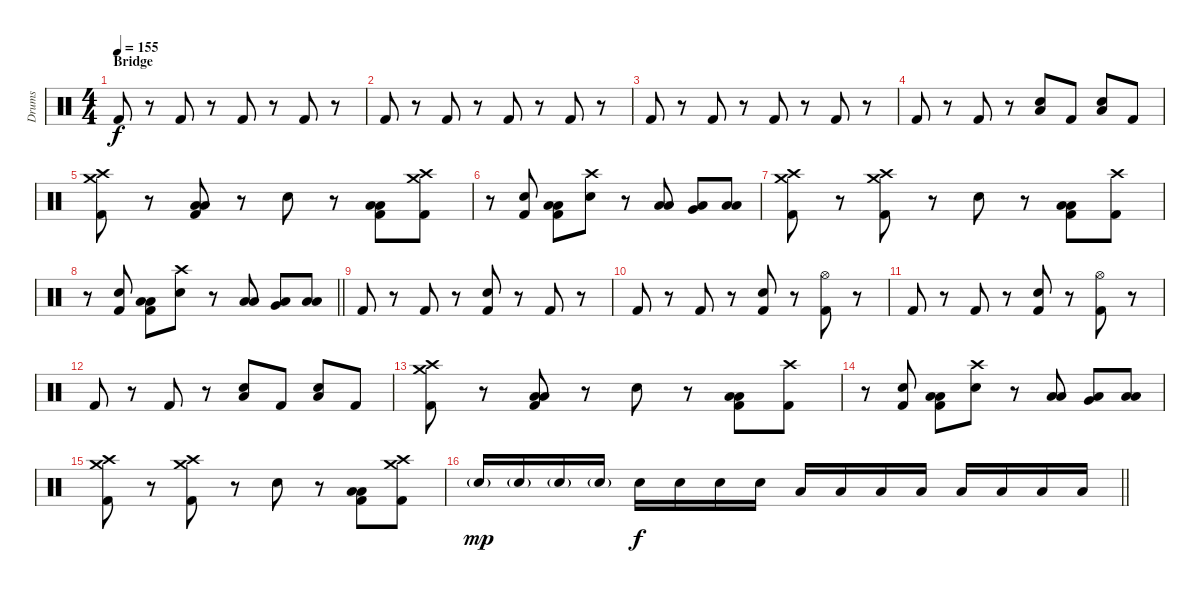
\track ("Drums" "Drums") {instrument percussion}
\staff {score}
\articulation defaults
\ts (4 4)
\section ("" "Bridge")
\tempo 155
\clef neutral
\ks c "Kick (hit) 2".8{dy f}
r.8 "Kick (hit) 2".8 r.8 "Kick (hit) 2".8 r.8 "Kick (hit) 2".8 r.8 |
"Kick (hit) 2".8 r.8 "Kick (hit) 2".8 r.8 "Kick (hit) 2".8 r.8 "Kick (hit) 2".8 r.8 |
"Kick (hit) 2".8 r.8 "Kick (hit) 2".8 r.8 "Kick (hit) 2".8 r.8 "Kick (hit) 2".8 r.8 |
"Kick (hit) 2".8 r.8 "Kick (hit) 2".8 r.8 ("Low Floor Tom (hit)" "Electric Snare (hit)").8 "Kick (hit) 2".8 ("Low Floor Tom (hit)" "Electric Snare (hit)").8 "Kick (hit) 2".8 |
("Crash high (hit)" "Crash medium (hit)" "Kick (hit) 2").8 r.8 ("Low Tom (hit)" "Low Floor Tom (hit)" "Kick (hit) 2").8 r.8 "Electric Snare (hit)".8 r.8 ("Low Tom (hit)" "Low Floor Tom (hit)" "Kick (hit) 2").8 ("Crash high (hit)" "Crash medium (hit)" "Kick (hit) 2").8 |
r.8 ("Electric Snare (hit)" "Kick (hit) 2").8 ("Low Tom (hit)" "Low Floor Tom (hit)" "Kick (hit) 2").8 ("Crash high (hit)" "Electric Snare (hit)").8 r.8 ("Low Tom (hit)" "Low Floor Tom (hit)").8 ("Very Low Tom (hit)" "Low Tom (hit)").8 ("Low Tom (hit)" "Low Floor Tom (hit)").8 |
("Crash high (hit)" "Crash medium (hit)" "Kick (hit) 2").8 r.8 ("Crash high (hit)" "Crash medium (hit)" "Kick (hit) 2").8 r.8 "Electric Snare (hit)".8 r.8 ("Low Tom (hit)" "Low Floor Tom (hit)" "Kick (hit) 2").8 ("Crash high (hit)" "Kick (hit) 2").8 |
\barLineRight lightlight
r.8 ("Electric Snare (hit)" "Kick (hit) 2").8 ("Low Tom (hit)" "Low Floor Tom (hit)" "Kick (hit) 2").8 ("Crash high (hit)" "Electric Snare (hit)").8 r.8 ("Low Tom (hit)" "Low Floor Tom (hit)").8 ("Very Low Tom (hit)" "Low Tom (hit)").8 ("Low Tom (hit)" "Low Floor Tom (hit)").8 |
\section ("" "")
"Kick (hit) 2".8 r.8 "Kick (hit) 2".8 r.8 ("Electric Snare (hit)" "Kick (hit) 2").8 r.8 "Kick (hit) 2".8 r.8 |
"Kick (hit) 2".8 r.8 "Kick (hit) 2".8 r.8 ("Electric Snare (hit)" "Kick (hit) 2").8 r.8 ("Hi-Hat (open)" "Kick (hit) 2").8 r.8 |
"Kick (hit) 2".8 r.8 "Kick (hit) 2".8 r.8 ("Electric Snare (hit)" "Kick (hit) 2").8 r.8 ("Hi-Hat (open)" "Kick (hit) 2").8 r.8 |
"Kick (hit) 2".8 r.8 "Kick (hit) 2".8 r.8 ("Low Floor Tom (hit)" "Electric Snare (hit)").8 "Kick (hit) 2".8 ("Low Floor Tom (hit)" "Electric Snare (hit)").8 "Kick (hit) 2".8 |
("Crash high (hit)" "Crash medium (hit)" "Kick (hit) 2").8 r.8 ("Low Tom (hit)" "Low Floor Tom (hit)" "Kick (hit) 2").8 r.8 "Electric Snare (hit)".8 r.8 ("Low Tom (hit)" "Low Floor Tom (hit)" "Kick (hit) 2").8 ("Crash high (hit)" "Kick (hit) 2").8 |
r.8 ("Electric Snare (hit)" "Kick (hit) 2").8 ("Low Tom (hit)" "Low Floor Tom (hit)" "Kick (hit) 2").8 ("Crash high (hit)" "Electric Snare (hit)").8 r.8 ("Low Tom (hit)" "Low Floor Tom (hit)").8 ("Very Low Tom (hit)" "Low Tom (hit)").8 ("Low Tom (hit)" "Low Floor Tom (hit)").8 |
("Crash high (hit)" "Crash medium (hit)" "Kick (hit) 2").8 r.8 ("Crash high (hit)" "Crash medium (hit)" "Kick (hit) 2").8 r.8 "Electric Snare (hit)".8 r.8 ("Low Tom (hit)" "Low Floor Tom (hit)" "Kick (hit) 2").8 ("Crash high (hit)" "Crash medium (hit)" "Kick (hit) 2").8 |
\barLineRight lightlight "Electric Snare (hit)"{g}.16{dy mp beam Up} "Electric Snare (hit)"{g}.16{beam Up} "Electric Snare (hit)"{g}.16{beam Up} "Electric Snare (hit)"{g}.16{beam Up} "Electric Snare (hit)".16{dy f} "Electric Snare (hit)".16 "Electric Snare (hit)".16 "Electric Snare (hit)".16 "Low Tom (hit)".16 "Low Tom (hit)".16 "Low Tom (hit)".16 "Low Tom (hit)".16 "Low Floor Tom (hit)".16 "Low Floor Tom (hit)".16 "Low Floor Tom (hit)".16 "Low Floor Tom (hit)".16
